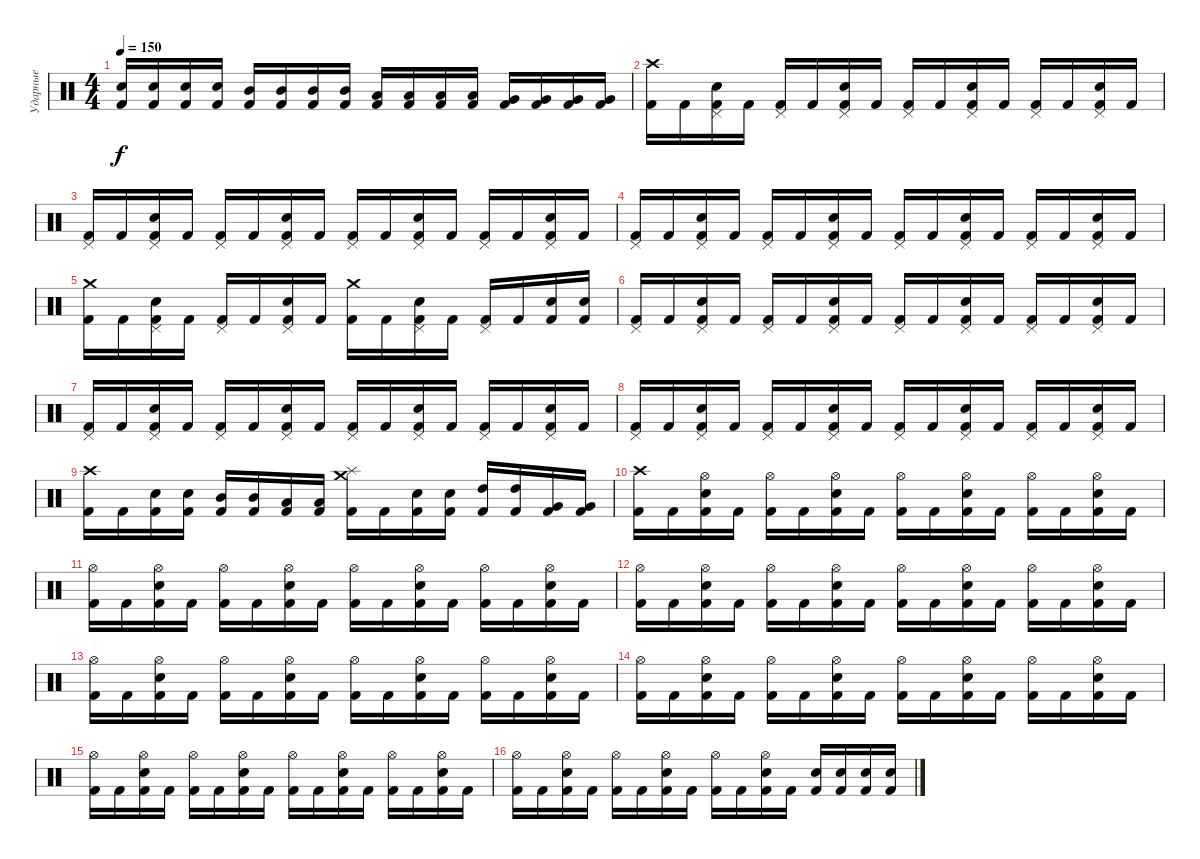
\track ("Ударные" "Ударные") {instrument percussion}
\staff {score}
\articulation defaults
\ts (4 4)
\tempo 150
\clef neutral
\ks c
("Electric Snare (hit)" "Kick (hit) 2").16{dy f} ("Electric Snare (hit)" "Kick (hit) 2").16 ("Electric Snare (hit)" "Kick (hit) 2").16 ("Electric Snare (hit)" "Kick (hit) 2").16 ("Mid Tom (hit)" "Kick (hit) 2").16 ("Mid Tom (hit)" "Kick (hit) 2").16 ("Mid Tom (hit)" "Kick (hit) 2").16 ("Mid Tom (hit)" "Kick (hit) 2").16 ("Low Tom (hit)" "Kick (hit) 2").16 ("Low Tom (hit)" "Kick (hit) 2").16 ("Low Tom (hit)" "Kick (hit) 2").16 ("Low Tom (hit)" "Kick (hit) 2").16 ("Very Low Tom (hit)" "Kick (hit) 2").16 ("Very Low Tom (hit)" "Kick (hit) 2").16 ("Very Low Tom (hit)" "Kick (hit) 2").16 ("Very Low Tom (hit)" "Kick (hit) 2").16 |
("Crash high (hit)" "Kick (hit) 2").16 "Kick (hit) 2".16 ("Pedal Hi-Hat (hit)" "Electric Snare (hit)" "Kick (hit) 2").16 "Kick (hit) 2".16 ("Pedal Hi-Hat (hit)" "Kick (hit) 2").16 "Kick (hit) 2".16 ("Pedal Hi-Hat (hit)" "Electric Snare (hit)" "Kick (hit) 2").16 "Kick (hit) 2".16 ("Pedal Hi-Hat (hit)" "Kick (hit) 2").16 "Kick (hit) 2".16 ("Pedal Hi-Hat (hit)" "Electric Snare (hit)" "Kick (hit) 2").16 "Kick (hit) 2".16 ("Pedal Hi-Hat (hit)" "Kick (hit) 2").16 "Kick (hit) 2".16 ("Pedal Hi-Hat (hit)" "Electric Snare (hit)" "Kick (hit) 2").16 "Kick (hit) 2".16 |
("Pedal Hi-Hat (hit)" "Kick (hit) 2").16 "Kick (hit) 2".16 ("Pedal Hi-Hat (hit)" "Electric Snare (hit)" "Kick (hit) 2").16 "Kick (hit) 2".16 ("Pedal Hi-Hat (hit)" "Kick (hit) 2").16 "Kick (hit) 2".16 ("Pedal Hi-Hat (hit)" "Electric Snare (hit)" "Kick (hit) 2").16 "Kick (hit) 2".16 ("Pedal Hi-Hat (hit)" "Kick (hit) 2").16 "Kick (hit) 2".16 ("Pedal Hi-Hat (hit)" "Electric Snare (hit)" "Kick (hit) 2").16 "Kick (hit) 2".16 ("Pedal Hi-Hat (hit)" "Kick (hit) 2").16 "Kick (hit) 2".16 ("Pedal Hi-Hat (hit)" "Electric Snare (hit)" "Kick (hit) 2").16 "Kick (hit) 2".16 |
("Pedal Hi-Hat (hit)" "Kick (hit) 2").16 "Kick (hit) 2".16 ("Pedal Hi-Hat (hit)" "Electric Snare (hit)" "Kick (hit) 2").16 "Kick (hit) 2".16 ("Pedal Hi-Hat (hit)" "Kick (hit) 2").16 "Kick (hit) 2".16 ("Pedal Hi-Hat (hit)" "Electric Snare (hit)" "Kick (hit) 2").16 "Kick (hit) 2".16 ("Pedal Hi-Hat (hit)" "Kick (hit) 2").16 "Kick (hit) 2".16 ("Pedal Hi-Hat (hit)" "Electric Snare (hit)" "Kick (hit) 2").16 "Kick (hit) 2".16 ("Pedal Hi-Hat (hit)" "Kick (hit) 2").16 "Kick (hit) 2".16 ("Pedal Hi-Hat (hit)" "Electric Snare (hit)" "Kick (hit) 2").16 "Kick (hit) 2".16 |
("Crash medium (hit)" "Kick (hit) 2").16 "Kick (hit) 2".16 ("Pedal Hi-Hat (hit)" "Electric Snare (hit)" "Kick (hit) 2").16 "Kick (hit) 2".16 ("Pedal Hi-Hat (hit)" "Kick (hit) 2").16 "Kick (hit) 2".16 ("Pedal Hi-Hat (hit)" "Electric Snare (hit)" "Kick (hit) 2").16 "Kick (hit) 2".16 ("Crash medium (hit)" "Kick (hit) 2").16 "Kick (hit) 2".16 ("Pedal Hi-Hat (hit)" "Electric Snare (hit)" "Kick (hit) 2").16 "Kick (hit) 2".16 ("Pedal Hi-Hat (hit)" "Kick (hit) 2").16 "Kick (hit) 2".16 ("Electric Snare (hit)" "Kick (hit) 2").16 ("Electric Snare (hit)" "Kick (hit) 2").16 |
("Pedal Hi-Hat (hit)" "Kick (hit) 2").16 "Kick (hit) 2".16 ("Pedal Hi-Hat (hit)" "Electric Snare (hit)" "Kick (hit) 2").16 "Kick (hit) 2".16 ("Pedal Hi-Hat (hit)" "Kick (hit) 2").16 "Kick (hit) 2".16 ("Pedal Hi-Hat (hit)" "Electric Snare (hit)" "Kick (hit) 2").16 "Kick (hit) 2".16 ("Pedal Hi-Hat (hit)" "Kick (hit) 2").16 "Kick (hit) 2".16 ("Pedal Hi-Hat (hit)" "Electric Snare (hit)" "Kick (hit) 2").16 "Kick (hit) 2".16 ("Pedal Hi-Hat (hit)" "Kick (hit) 2").16 "Kick (hit) 2".16 ("Pedal Hi-Hat (hit)" "Electric Snare (hit)" "Kick (hit) 2").16 "Kick (hit) 2".16 |
("Pedal Hi-Hat (hit)" "Kick (hit) 2").16 "Kick (hit) 2".16 ("Pedal Hi-Hat (hit)" "Electric Snare (hit)" "Kick (hit) 2").16 "Kick (hit) 2".16 ("Pedal Hi-Hat (hit)" "Kick (hit) 2").16 "Kick (hit) 2".16 ("Pedal Hi-Hat (hit)" "Electric Snare (hit)" "Kick (hit) 2").16 "Kick (hit) 2".16 ("Pedal Hi-Hat (hit)" "Kick (hit) 2").16 "Kick (hit) 2".16 ("Pedal Hi-Hat (hit)" "Electric Snare (hit)" "Kick (hit) 2").16 "Kick (hit) 2".16 ("Pedal Hi-Hat (hit)" "Kick (hit) 2").16 "Kick (hit) 2".16 ("Pedal Hi-Hat (hit)" "Electric Snare (hit)" "Kick (hit) 2").16 "Kick (hit) 2".16 |
("Pedal Hi-Hat (hit)" "Kick (hit) 2").16 "Kick (hit) 2".16 ("Pedal Hi-Hat (hit)" "Electric Snare (hit)" "Kick (hit) 2").16 "Kick (hit) 2".16 ("Pedal Hi-Hat (hit)" "Kick (hit) 2").16 "Kick (hit) 2".16 ("Pedal Hi-Hat (hit)" "Electric Snare (hit)" "Kick (hit) 2").16 "Kick (hit) 2".16 ("Pedal Hi-Hat (hit)" "Kick (hit) 2").16 "Kick (hit) 2".16 ("Pedal Hi-Hat (hit)" "Electric Snare (hit)" "Kick (hit) 2").16 "Kick (hit) 2".16 ("Pedal Hi-Hat (hit)" "Kick (hit) 2").16 "Kick (hit) 2".16 ("Pedal Hi-Hat (hit)" "Electric Snare (hit)" "Kick (hit) 2").16 "Kick (hit) 2".16 |
("Crash high (hit)" "Kick (hit) 2").16 "Kick (hit) 2".16 ("Electric Snare (hit)" "Kick (hit) 2").16 ("Electric Snare (hit)" "Kick (hit) 2").16 ("Mid Tom (hit)" "Kick (hit) 2").16 ("Mid Tom (hit)" "Kick (hit) 2").16 ("Low Tom (hit)" "Kick (hit) 2").16 ("Low Tom (hit)" "Kick (hit) 2").16 ("Crash medium (hit)" "Splash (hit)" "Kick (hit) 2").16 "Kick (hit) 2".16 ("Electric Snare (hit)" "Kick (hit) 2").16 ("Electric Snare (hit)" "Kick (hit) 2").16 ("High Tom (hit)" "Kick (hit) 2").16 ("High Tom (hit)" "Kick (hit) 2").16 ("Very Low Tom (hit)" "Kick (hit) 2").16 ("Very Low Tom (hit)" "Kick (hit) 2").16 |
("Crash high (hit)" "Kick (hit) 2").16 "Kick (hit) 2".16 ("Hi-Hat (open)" "Electric Snare (hit)" "Kick (hit) 2").16 "Kick (hit) 2".16 ("Hi-Hat (open)" "Kick (hit) 2").16 "Kick (hit) 2".16 ("Hi-Hat (open)" "Electric Snare (hit)" "Kick (hit) 2").16 "Kick (hit) 2".16 ("Hi-Hat (open)" "Kick (hit) 2").16 "Kick (hit) 2".16 ("Hi-Hat (open)" "Electric Snare (hit)" "Kick (hit) 2").16 "Kick (hit) 2".16 ("Hi-Hat (open)" "Kick (hit) 2").16 "Kick (hit) 2".16 ("Hi-Hat (open)" "Electric Snare (hit)" "Kick (hit) 2").16 "Kick (hit) 2".16 |
("Hi-Hat (open)" "Kick (hit) 2").16 "Kick (hit) 2".16 ("Hi-Hat (open)" "Electric Snare (hit)" "Kick (hit) 2").16 "Kick (hit) 2".16 ("Hi-Hat (open)" "Kick (hit) 2").16 "Kick (hit) 2".16 ("Hi-Hat (open)" "Electric Snare (hit)" "Kick (hit) 2").16 "Kick (hit) 2".16 ("Hi-Hat (open)" "Kick (hit) 2").16 "Kick (hit) 2".16 ("Hi-Hat (open)" "Electric Snare (hit)" "Kick (hit) 2").16 "Kick (hit) 2".16 ("Hi-Hat (open)" "Kick (hit) 2").16 "Kick (hit) 2".16 ("Hi-Hat (open)" "Electric Snare (hit)" "Kick (hit) 2").16 "Kick (hit) 2".16 |
("Hi-Hat (open)" "Kick (hit) 2").16 "Kick (hit) 2".16 ("Hi-Hat (open)" "Electric Snare (hit)" "Kick (hit) 2").16 "Kick (hit) 2".16 ("Hi-Hat (open)" "Kick (hit) 2").16 "Kick (hit) 2".16 ("Hi-Hat (open)" "Electric Snare (hit)" "Kick (hit) 2").16 "Kick (hit) 2".16 ("Hi-Hat (open)" "Kick (hit) 2").16 "Kick (hit) 2".16 ("Hi-Hat (open)" "Electric Snare (hit)" "Kick (hit) 2").16 "Kick (hit) 2".16 ("Hi-Hat (open)" "Kick (hit) 2").16 "Kick (hit) 2".16 ("Hi-Hat (open)" "Electric Snare (hit)" "Kick (hit) 2").16 "Kick (hit) 2".16 |
("Hi-Hat (open)" "Kick (hit) 2").16 "Kick (hit) 2".16 ("Hi-Hat (open)" "Electric Snare (hit)" "Kick (hit) 2").16 "Kick (hit) 2".16 ("Hi-Hat (open)" "Kick (hit) 2").16 "Kick (hit) 2".16 ("Hi-Hat (open)" "Electric Snare (hit)" "Kick (hit) 2").16 "Kick (hit) 2".16 ("Hi-Hat (open)" "Kick (hit) 2").16 "Kick (hit) 2".16 ("Hi-Hat (open)" "Electric Snare (hit)" "Kick (hit) 2").16 "Kick (hit) 2".16 ("Hi-Hat (open)" "Kick (hit) 2").16 "Kick (hit) 2".16 ("Hi-Hat (open)" "Electric Snare (hit)" "Kick (hit) 2").16 "Kick (hit) 2".16 |
("Hi-Hat (open)" "Kick (hit) 2").16 "Kick (hit) 2".16 ("Hi-Hat (open)" "Electric Snare (hit)" "Kick (hit) 2").16 "Kick (hit) 2".16 ("Hi-Hat (open)" "Kick (hit) 2").16 "Kick (hit) 2".16 ("Hi-Hat (open)" "Electric Snare (hit)" "Kick (hit) 2").16 "Kick (hit) 2".16 ("Hi-Hat (open)" "Kick (hit) 2").16 "Kick (hit) 2".16 ("Hi-Hat (open)" "Electric Snare (hit)" "Kick (hit) 2").16 "Kick (hit) 2".16 ("Hi-Hat (open)" "Kick (hit) 2").16 "Kick (hit) 2".16 ("Hi-Hat (open)" "Electric Snare (hit)" "Kick (hit) 2").16 "Kick (hit) 2".16 |
("Hi-Hat (open)" "Kick (hit) 2").16 "Kick (hit) 2".16 ("Hi-Hat (open)" "Electric Snare (hit)" "Kick (hit) 2").16 "Kick (hit) 2".16 ("Hi-Hat (open)" "Kick (hit) 2").16 "Kick (hit) 2".16 ("Hi-Hat (open)" "Electric Snare (hit)" "Kick (hit) 2").16 "Kick (hit) 2".16 ("Hi-Hat (open)" "Kick (hit) 2").16 "Kick (hit) 2".16 ("Hi-Hat (open)" "Electric Snare (hit)" "Kick (hit) 2").16 "Kick (hit) 2".16 ("Hi-Hat (open)" "Kick (hit) 2").16 "Kick (hit) 2".16 ("Hi-Hat (open)" "Electric Snare (hit)" "Kick (hit) 2").16 "Kick (hit) 2".16 |
("Hi-Hat (open)" "Kick (hit) 2").16 "Kick (hit) 2".16 ("Hi-Hat (open)" "Electric Snare (hit)" "Kick (hit) 2").16 "Kick (hit) 2".16 ("Hi-Hat (open)" "Kick (hit) 2").16 "Kick (hit) 2".16 ("Hi-Hat (open)" "Electric Snare (hit)" "Kick (hit) 2").16 "Kick (hit) 2".16 ("Hi-Hat (open)" "Kick (hit) 2").16 "Kick (hit) 2".16 ("Hi-Hat (open)" "Electric Snare (hit)" "Kick (hit) 2").16 "Kick (hit) 2".16 ("Electric Snare (hit)" "Kick (hit) 2").16 ("Electric Snare (hit)" "Kick (hit) 2").16 ("Electric Snare (hit)" "Kick (hit) 2").16 ("Electric Snare (hit)" "Kick (hit) 2").16
